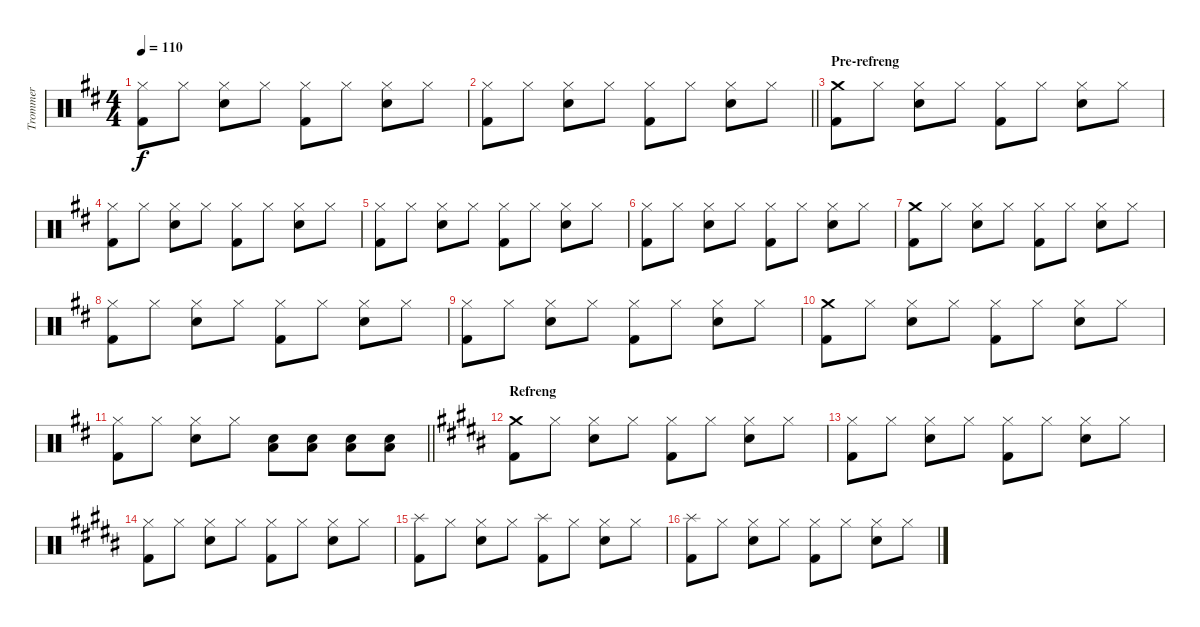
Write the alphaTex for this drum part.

\track ("Trommer" "Trommer") {instrument percussion}
\staff {score}
\articulation defaults
\ts (4 4)
\tempo 110
\clef neutral
\ks d
("Hi-Hat (closed)" "Kick (hit) 2").8{dy f} "Hi-Hat (closed)".8 ("Hi-Hat (closed)" "Electric Snare (hit)").8 "Hi-Hat (closed)".8 ("Hi-Hat (closed)" "Kick (hit) 2").8 "Hi-Hat (closed)".8 ("Hi-Hat (closed)" "Electric Snare (hit)").8 "Hi-Hat (closed)".8 |
\barLineRight lightlight
("Hi-Hat (closed)" "Kick (hit) 2").8 "Hi-Hat (closed)".8 ("Hi-Hat (closed)" "Electric Snare (hit)").8 "Hi-Hat (closed)".8 ("Hi-Hat (closed)" "Kick (hit) 2").8 "Hi-Hat (closed)".8 ("Hi-Hat (closed)" "Electric Snare (hit)").8 "Hi-Hat (closed)".8 |
\section ("" "Pre-refreng")
("Crash medium (hit)" "Kick (hit) 2").8 "Hi-Hat (closed)".8 ("Hi-Hat (closed)" "Electric Snare (hit)").8 "Hi-Hat (closed)".8 ("Hi-Hat (closed)" "Kick (hit) 2").8 "Hi-Hat (closed)".8 ("Hi-Hat (closed)" "Electric Snare (hit)").8 "Hi-Hat (closed)".8 |
("Hi-Hat (closed)" "Kick (hit) 2").8 "Hi-Hat (closed)".8 ("Hi-Hat (closed)" "Electric Snare (hit)").8 "Hi-Hat (closed)".8 ("Hi-Hat (closed)" "Kick (hit) 2").8 "Hi-Hat (closed)".8 ("Hi-Hat (closed)" "Electric Snare (hit)").8 "Hi-Hat (closed)".8 |
("Hi-Hat (closed)" "Kick (hit) 2").8 "Hi-Hat (closed)".8 ("Hi-Hat (closed)" "Electric Snare (hit)").8 "Hi-Hat (closed)".8 ("Hi-Hat (closed)" "Kick (hit) 2").8 "Hi-Hat (closed)".8 ("Hi-Hat (closed)" "Electric Snare (hit)").8 "Hi-Hat (closed)".8 |
("Hi-Hat (closed)" "Kick (hit) 2").8 "Hi-Hat (closed)".8 ("Hi-Hat (closed)" "Electric Snare (hit)").8 "Hi-Hat (closed)".8 ("Hi-Hat (closed)" "Kick (hit) 2").8 "Hi-Hat (closed)".8 ("Hi-Hat (closed)" "Electric Snare (hit)").8 "Hi-Hat (closed)".8 |
("Crash medium (hit)" "Kick (hit) 2").8 "Hi-Hat (closed)".8 ("Hi-Hat (closed)" "Electric Snare (hit)").8 "Hi-Hat (closed)".8 ("Hi-Hat (closed)" "Kick (hit) 2").8 "Hi-Hat (closed)".8 ("Hi-Hat (closed)" "Electric Snare (hit)").8 "Hi-Hat (closed)".8 |
("Hi-Hat (closed)" "Kick (hit) 2").8 "Hi-Hat (closed)".8 ("Hi-Hat (closed)" "Electric Snare (hit)").8 "Hi-Hat (closed)".8 ("Hi-Hat (closed)" "Kick (hit) 2").8 "Hi-Hat (closed)".8 ("Hi-Hat (closed)" "Electric Snare (hit)").8 "Hi-Hat (closed)".8 |
("Hi-Hat (closed)" "Kick (hit) 2").8 "Hi-Hat (closed)".8 ("Hi-Hat (closed)" "Electric Snare (hit)").8 "Hi-Hat (closed)".8 ("Hi-Hat (closed)" "Kick (hit) 2").8 "Hi-Hat (closed)".8 ("Hi-Hat (closed)" "Electric Snare (hit)").8 "Hi-Hat (closed)".8 |
("Crash medium (hit)" "Kick (hit) 2").8 "Hi-Hat (closed)".8 ("Hi-Hat (closed)" "Electric Snare (hit)").8 "Hi-Hat (closed)".8 ("Hi-Hat (closed)" "Kick (hit) 2").8 "Hi-Hat (closed)".8 ("Hi-Hat (closed)" "Electric Snare (hit)").8 "Hi-Hat (closed)".8 |
\barLineRight lightlight
("Hi-Hat (closed)" "Kick (hit) 2").8 "Hi-Hat (closed)".8 ("Hi-Hat (closed)" "Electric Snare (hit)").8 "Hi-Hat (closed)".8 ("Electric Snare (hit)" "Low Tom (hit)").8 ("Electric Snare (hit)" "Low Tom (hit)").8 ("Electric Snare (hit)" "Low Tom (hit)").8 ("Electric Snare (hit)" "Low Tom (hit)").8 |
\section ("" "Refreng")
\ks b
("Crash medium (hit)" "Kick (hit) 2").8 "Hi-Hat (closed)".8 ("Hi-Hat (closed)" "Electric Snare (hit)").8 "Hi-Hat (closed)".8 ("Hi-Hat (closed)" "Kick (hit) 2").8 "Hi-Hat (closed)".8 ("Hi-Hat (closed)" "Electric Snare (hit)").8 "Hi-Hat (closed)".8 |
("Hi-Hat (closed)" "Kick (hit) 2").8 "Hi-Hat (closed)".8 ("Hi-Hat (closed)" "Electric Snare (hit)").8 "Hi-Hat (closed)".8 ("Hi-Hat (closed)" "Kick (hit) 2").8 "Hi-Hat (closed)".8 ("Hi-Hat (closed)" "Electric Snare (hit)").8 "Hi-Hat (closed)".8 |
("Hi-Hat (closed)" "Kick (hit) 2").8 "Hi-Hat (closed)".8 ("Hi-Hat (closed)" "Electric Snare (hit)").8 "Hi-Hat (closed)".8 ("Hi-Hat (closed)" "Kick (hit) 2").8 "Hi-Hat (closed)".8 ("Hi-Hat (closed)" "Electric Snare (hit)").8 "Hi-Hat (closed)".8 |
("Splash (hit)" "Kick (hit) 2").8 "Hi-Hat (closed)".8 ("Hi-Hat (closed)" "Electric Snare (hit)").8 "Hi-Hat (closed)".8 ("Splash (hit)" "Kick (hit) 2").8 "Hi-Hat (closed)".8 ("Hi-Hat (closed)" "Electric Snare (hit)").8 "Hi-Hat (closed)".8 |
("Splash (hit)" "Kick (hit) 2").8 "Hi-Hat (closed)".8 ("Hi-Hat (closed)" "Electric Snare (hit)").8 "Hi-Hat (closed)".8 ("Hi-Hat (closed)" "Kick (hit) 2").8 "Hi-Hat (closed)".8 ("Hi-Hat (closed)" "Electric Snare (hit)").8 "Hi-Hat (closed)".8
